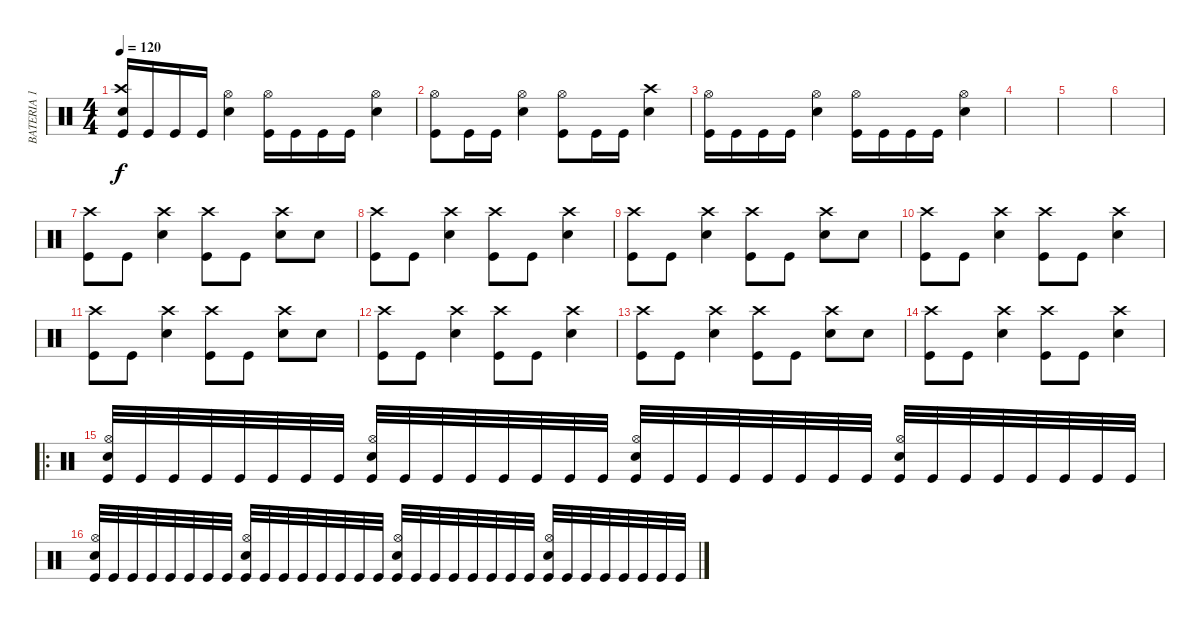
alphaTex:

\track ("BATERIA 1" "BATERIA 1") {instrument percussion}
\staff {score}
\articulation defaults
\ts (4 4)
\tempo 120
\clef neutral
\ks c
("Hand Clap (hit)" "Crash high (hit)" "Kick (hit)").16{dy f} "Kick (hit)".16 "Kick (hit)".16 "Kick (hit)".16 ("Hi-Hat (open)" "Snare (hit) 2").4 ("Hi-Hat (open)" "Kick (hit)").16 "Kick (hit)".16 "Kick (hit)".16 "Kick (hit)".16 ("Hi-Hat (open)" "Snare (hit) 2").4 |
("Hi-Hat (open)" "Kick (hit)").8 "Kick (hit)".16 "Kick (hit)".16 ("Hi-Hat (open)" "Snare (hit) 2").4 ("Hi-Hat (open)" "Kick (hit)").8 "Kick (hit)".16 "Kick (hit)".16 ("Crash high (hit)" "Snare (hit) 2").4 |
("Hi-Hat (open)" "Kick (hit)").16 "Kick (hit)".16 "Kick (hit)".16 "Kick (hit)".16 ("Hi-Hat (open)" "Snare (hit) 2").4 ("Hi-Hat (open)" "Kick (hit)").16 "Kick (hit)".16 "Kick (hit)".16 "Kick (hit)".16 ("Hi-Hat (open)" "Snare (hit) 2").4 |
|
|
|
("Crash high (hit)" "Kick (hit)").8 "Kick (hit)".8 ("Crash high (hit)" "Snare (hit) 2").4 ("Crash high (hit)" "Kick (hit)").8 "Kick (hit)".8 ("Crash high (hit)" "Snare (hit) 2").8 "Snare (hit) 2".8 |
("Crash high (hit)" "Kick (hit)").8 "Kick (hit)".8 ("Crash high (hit)" "Snare (hit) 2").4 ("Crash high (hit)" "Kick (hit)").8 "Kick (hit)".8 ("Crash high (hit)" "Snare (hit) 2").4 |
("Crash high (hit)" "Kick (hit)").8 "Kick (hit)".8 ("Crash high (hit)" "Snare (hit) 2").4 ("Crash high (hit)" "Kick (hit)").8 "Kick (hit)".8 ("Crash high (hit)" "Snare (hit) 2").8 "Snare (hit) 2".8 |
("Crash high (hit)" "Kick (hit)").8 "Kick (hit)".8 ("Crash high (hit)" "Snare (hit) 2").4 ("Crash high (hit)" "Kick (hit)").8 "Kick (hit)".8 ("Crash high (hit)" "Snare (hit) 2").4 |
("Crash high (hit)" "Kick (hit)").8 "Kick (hit)".8 ("Crash high (hit)" "Snare (hit) 2").4 ("Crash high (hit)" "Kick (hit)").8 "Kick (hit)".8 ("Crash high (hit)" "Snare (hit) 2").8 "Snare (hit) 2".8 |
("Crash high (hit)" "Kick (hit)").8 "Kick (hit)".8 ("Crash high (hit)" "Snare (hit) 2").4 ("Crash high (hit)" "Kick (hit)").8 "Kick (hit)".8 ("Crash high (hit)" "Snare (hit) 2").4 |
("Crash high (hit)" "Kick (hit)").8 "Kick (hit)".8 ("Crash high (hit)" "Snare (hit) 2").4 ("Crash high (hit)" "Kick (hit)").8 "Kick (hit)".8 ("Crash high (hit)" "Snare (hit) 2").8 "Snare (hit) 2".8 |
("Crash high (hit)" "Kick (hit)").8 "Kick (hit)".8 ("Crash high (hit)" "Snare (hit) 2").4 ("Crash high (hit)" "Kick (hit)").8 "Kick (hit)".8 ("Crash high (hit)" "Snare (hit) 2").4 |
\ro
("Kick (hit)" "Snare (hit) 2" "Hi-Hat (open)").32 "Kick (hit)".32 "Kick (hit)".32 "Kick (hit)".32 "Kick (hit)".32 "Kick (hit)".32 "Kick (hit)".32 "Kick (hit)".32 ("Kick (hit)" "Snare (hit) 2" "Hi-Hat (open)").32 "Kick (hit)".32 "Kick (hit)".32 "Kick (hit)".32 "Kick (hit)".32 "Kick (hit)".32 "Kick (hit)".32 "Kick (hit)".32 ("Kick (hit)" "Snare (hit) 2" "Hi-Hat (open)").32 "Kick (hit)".32 "Kick (hit)".32 "Kick (hit)".32 "Kick (hit)".32 "Kick (hit)".32 "Kick (hit)".32 "Kick (hit)".32 ("Kick (hit)" "Snare (hit) 2" "Hi-Hat (open)").32 "Kick (hit)".32 "Kick (hit)".32 "Kick (hit)".32 "Kick (hit)".32 "Kick (hit)".32 "Kick (hit)".32 "Kick (hit)".32 |
("Kick (hit)" "Snare (hit) 2" "Hi-Hat (open)").32 "Kick (hit)".32 "Kick (hit)".32 "Kick (hit)".32 "Kick (hit)".32 "Kick (hit)".32 "Kick (hit)".32 "Kick (hit)".32 ("Kick (hit)" "Snare (hit) 2" "Hi-Hat (open)").32 "Kick (hit)".32 "Kick (hit)".32 "Kick (hit)".32 "Kick (hit)".32 "Kick (hit)".32 "Kick (hit)".32 "Kick (hit)".32 ("Kick (hit)" "Snare (hit) 2" "Hi-Hat (open)").32 "Kick (hit)".32 "Kick (hit)".32 "Kick (hit)".32 "Kick (hit)".32 "Kick (hit)".32 "Kick (hit)".32 "Kick (hit)".32 ("Kick (hit)" "Snare (hit) 2" "Hi-Hat (open)").32 "Kick (hit)".32 "Kick (hit)".32 "Kick (hit)".32 "Kick (hit)".32 "Kick (hit)".32 "Kick (hit)".32 "Kick (hit)".32
